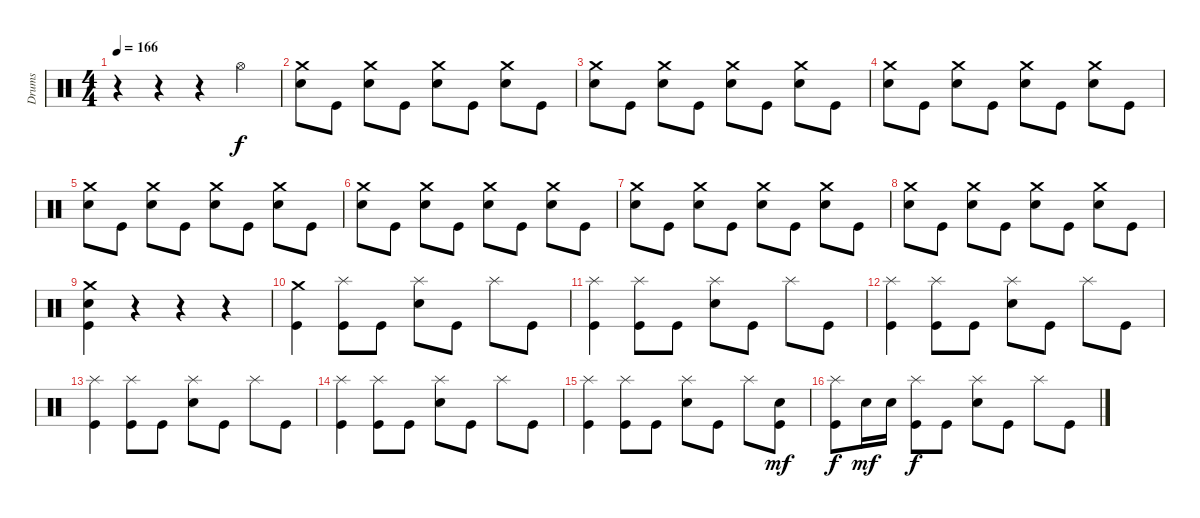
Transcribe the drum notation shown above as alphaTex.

\track ("Drums" "Drums") {instrument percussion}
\staff {score}
\articulation defaults
\ts (4 4)
\tempo 166
\clef neutral
\ks c
r.4{dy f} r.4 r.4 "Hi-Hat (open)".4 |
("Crash medium (hit)" "Electric Snare (hit)").8 "Kick (hit)".8 ("Crash medium (hit)" "Electric Snare (hit)").8 "Kick (hit)".8 ("Crash medium (hit)" "Electric Snare (hit)").8 "Kick (hit)".8 ("Crash medium (hit)" "Electric Snare (hit)").8 "Kick (hit)".8 |
("Crash medium (hit)" "Electric Snare (hit)").8 "Kick (hit)".8 ("Crash medium (hit)" "Electric Snare (hit)").8 "Kick (hit)".8 ("Crash medium (hit)" "Electric Snare (hit)").8 "Kick (hit)".8 ("Crash medium (hit)" "Electric Snare (hit)").8 "Kick (hit)".8 |
("Crash medium (hit)" "Electric Snare (hit)").8 "Kick (hit)".8 ("Crash medium (hit)" "Electric Snare (hit)").8 "Kick (hit)".8 ("Crash medium (hit)" "Electric Snare (hit)").8 "Kick (hit)".8 ("Crash medium (hit)" "Electric Snare (hit)").8 "Kick (hit)".8 |
("Crash medium (hit)" "Electric Snare (hit)").8 "Kick (hit)".8 ("Crash medium (hit)" "Electric Snare (hit)").8 "Kick (hit)".8 ("Crash medium (hit)" "Electric Snare (hit)").8 "Kick (hit)".8 ("Crash medium (hit)" "Electric Snare (hit)").8 "Kick (hit)".8 |
("Crash medium (hit)" "Electric Snare (hit)").8 "Kick (hit)".8 ("Crash medium (hit)" "Electric Snare (hit)").8 "Kick (hit)".8 ("Crash medium (hit)" "Electric Snare (hit)").8 "Kick (hit)".8 ("Crash medium (hit)" "Electric Snare (hit)").8 "Kick (hit)".8 |
("Crash medium (hit)" "Electric Snare (hit)").8 "Kick (hit)".8 ("Crash medium (hit)" "Electric Snare (hit)").8 "Kick (hit)".8 ("Crash medium (hit)" "Electric Snare (hit)").8 "Kick (hit)".8 ("Crash medium (hit)" "Electric Snare (hit)").8 "Kick (hit)".8 |
("Crash medium (hit)" "Electric Snare (hit)").8 "Kick (hit)".8 ("Crash medium (hit)" "Electric Snare (hit)").8 "Kick (hit)".8 ("Crash medium (hit)" "Electric Snare (hit)").8 "Kick (hit)".8 ("Crash medium (hit)" "Electric Snare (hit)").8 "Kick (hit)".8 |
("Crash medium (hit)" "Electric Snare (hit)" "Kick (hit)").4 r.4 r.4 r.4 |
("Crash medium (hit)" "Kick (hit)").4 ("Splash (hit)" "Kick (hit)").8 "Kick (hit)".8 ("Splash (hit)" "Electric Snare (hit)").8 "Kick (hit)".8 "Splash (hit)".8 "Kick (hit)".8 |
("Splash (hit)" "Kick (hit)").4 ("Splash (hit)" "Kick (hit)").8 "Kick (hit)".8 ("Splash (hit)" "Electric Snare (hit)").8 "Kick (hit)".8 "Splash (hit)".8 "Kick (hit)".8 |
("Splash (hit)" "Kick (hit)").4 ("Splash (hit)" "Kick (hit)").8 "Kick (hit)".8 ("Splash (hit)" "Electric Snare (hit)").8 "Kick (hit)".8 "Splash (hit)".8 "Kick (hit)".8 |
("Splash (hit)" "Kick (hit)").4 ("Splash (hit)" "Kick (hit)").8 "Kick (hit)".8 ("Splash (hit)" "Electric Snare (hit)").8 "Kick (hit)".8 "Splash (hit)".8 "Kick (hit)".8 |
("Splash (hit)" "Kick (hit)").4 ("Splash (hit)" "Kick (hit)").8 "Kick (hit)".8 ("Splash (hit)" "Electric Snare (hit)").8 "Kick (hit)".8 "Splash (hit)".8 "Kick (hit)".8 |
("Splash (hit)" "Kick (hit)").4 ("Splash (hit)" "Kick (hit)").8 "Kick (hit)".8 ("Splash (hit)" "Electric Snare (hit)").8 "Kick (hit)".8 "Splash (hit)".8 ("Electric Snare (hit)" "Kick (hit)").8{dy mf} |
("Splash (hit)" "Kick (hit)").8{dy f} "Electric Snare (hit)".16{dy mf} "Electric Snare (hit)".16 ("Splash (hit)" "Kick (hit)").8{dy f} "Kick (hit)".8 ("Splash (hit)" "Electric Snare (hit)").8 "Kick (hit)".8 "Splash (hit)".8 "Kick (hit)".8
